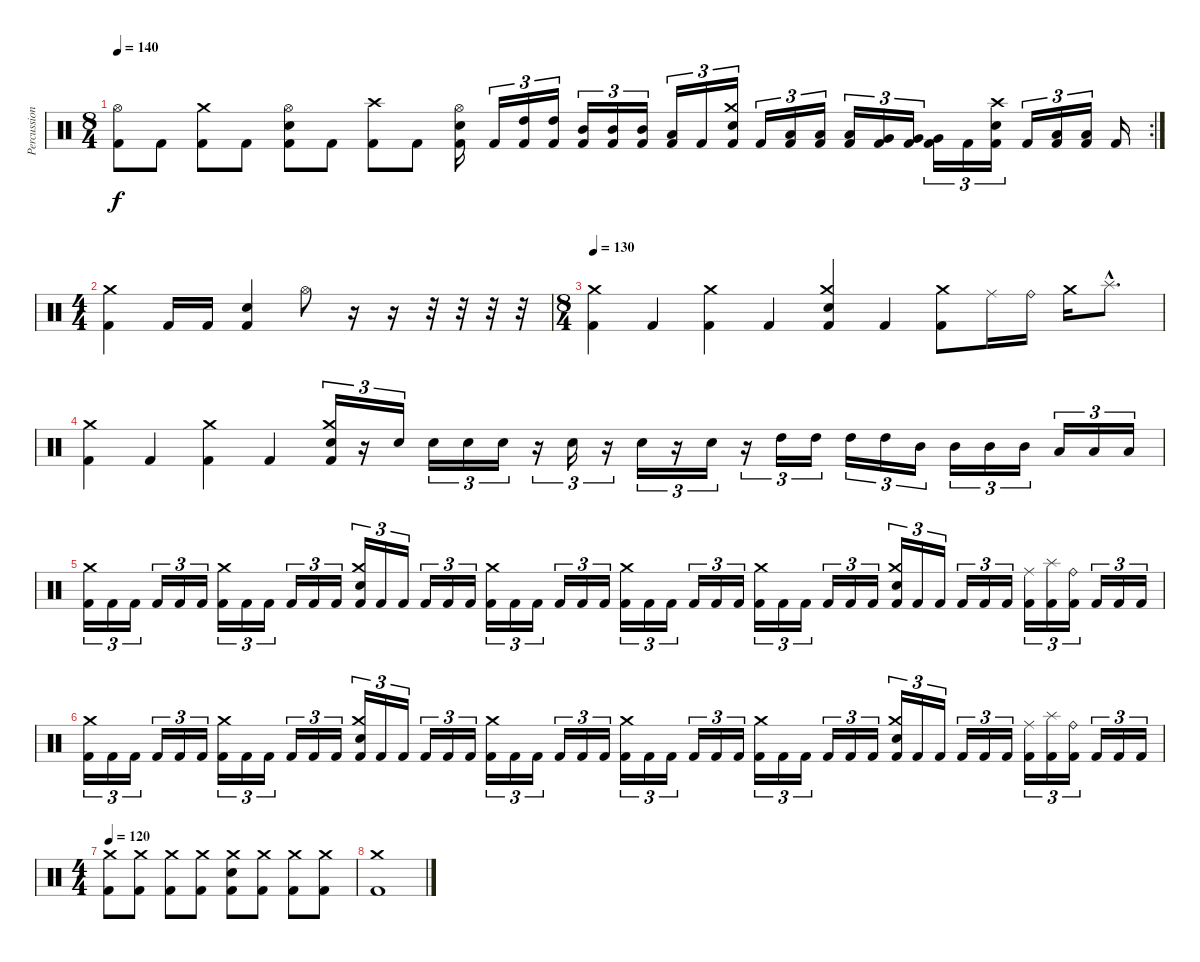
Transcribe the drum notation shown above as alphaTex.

\track ("Percussion" "Percussion") {instrument percussion}
\staff {score}
\articulation defaults
\rc 2
\ts (8 4)
\tempo 140
\clef neutral
\ks c
("Hi-Hat (open)" "Kick (hit) 2").8{dy f} "Kick (hit) 2".8 ("Crash medium (hit)" "Kick (hit) 2").8 "Kick (hit) 2".8 ("Hi-Hat (open)" "Electric Snare (hit)" "Kick (hit) 2").8 "Kick (hit) 2".8 ("Crash high (hit)" "Kick (hit) 2").8 "Kick (hit) 2".8 ("Hi-Hat (open)" "Electric Snare (hit)" "Kick (hit) 2").16 "Kick (hit) 2".16{tu (3 2)} ("High Tom (hit)" "Kick (hit) 2").16{tu (3 2)} ("High Tom (hit)" "Kick (hit) 2").16{tu (3 2)} ("Mid Tom (hit)" "Kick (hit) 2").16{tu (3 2)} ("Mid Tom (hit)" "Kick (hit) 2").16{tu (3 2)} ("Mid Tom (hit)" "Kick (hit) 2").16{tu (3 2)} ("Low Tom (hit)" "Kick (hit) 2").16{tu (3 2)} "Kick (hit) 2".16{tu (3 2)} ("Crash medium (hit)" "Electric Snare (hit)" "Kick (hit) 2").16{tu (3 2)} "Kick (hit) 2".16{tu (3 2)} ("Low Tom (hit)" "Kick (hit) 2").16{tu (3 2)} ("Low Tom (hit)" "Kick (hit) 2").16{tu (3 2)} ("Low Tom (hit)" "Kick (hit) 2").16{tu (3 2)} ("Very Low Tom (hit)" "Kick (hit) 2").16{tu (3 2)} ("Very Low Tom (hit)" "Kick (hit) 2").16{tu (3 2)} ("Very Low Tom (hit)" "Kick (hit) 2").16{tu (3 2)} "Kick (hit) 2".16{tu (3 2)} ("Crash high (hit)" "Electric Snare (hit)" "Kick (hit) 2").16{tu (3 2)} "Kick (hit) 2".16{tu (3 2)} ("Low Floor Tom (hit)" "Kick (hit) 2").16{tu (3 2)} ("Low Floor Tom (hit)" "Kick (hit) 2").16{tu (3 2)} "Kick (hit) 2".16 |
\ts (4 4)
("Crash medium (hit)" "Kick (hit) 2").4 "Kick (hit) 2".16 "Kick (hit) 2".16 ("Electric Snare (hit)" "Kick (hit) 2").4 "Hi-Hat (open)".8 r.16 r.16 r.32 r.32 r.32 r.32 |
\ts (8 4)
\tempo 130
("Crash medium (hit)" "Kick (hit) 2").4 "Kick (hit) 2".4 ("Crash medium (hit)" "Kick (hit) 2").4 "Kick (hit) 2".4 ("Crash medium (hit)" "Electric Snare (hit)" "Kick (hit) 2").4 "Kick (hit) 2".4 ("Crash medium (hit)" "Kick (hit) 2").8 "Ride (middle)".16 "Ride (bell)".16 "Crash medium (hit)".16 "Splash (hit)"{hac}.8{d} |
("Crash medium (hit)" "Kick (hit) 2").4 "Kick (hit) 2".4 ("Crash medium (hit)" "Kick (hit) 2").4 "Kick (hit) 2".4 ("Crash medium (hit)" "Electric Snare (hit)" "Kick (hit) 2").16{tu (3 2)} r.16{tu (3 2)} "Electric Snare (hit)".16{tu (3 2)} "Electric Snare (hit)".16{tu (3 2)} "Electric Snare (hit)".16{tu (3 2)} "Electric Snare (hit)".16{tu (3 2)} r.16{tu (3 2)} "Electric Snare (hit)".16{tu (3 2)} r.16{tu (3 2)} "Electric Snare (hit)".16{tu (3 2)} r.16{tu (3 2)} "Electric Snare (hit)".16{tu (3 2)} r.16{tu (3 2)} "High Tom (hit)".16{tu (3 2)} "High Tom (hit)".16{tu (3 2)} "High Tom (hit)".16{tu (3 2)} "High Tom (hit)".16{tu (3 2)} "Mid Tom (hit)".16{tu (3 2)} "Mid Tom (hit)".16{tu (3 2)} "Mid Tom (hit)".16{tu (3 2)} "Mid Tom (hit)".16{tu (3 2)} "Low Tom (hit)".16{tu (3 2)} "Low Tom (hit)".16{tu (3 2)} "Low Tom (hit)".16{tu (3 2)} |
("Crash medium (hit)" "Kick (hit) 2").16{tu (3 2)} "Kick (hit) 2".16{tu (3 2)} "Kick (hit) 2".16{tu (3 2)} "Kick (hit) 2".16{tu (3 2)} "Kick (hit) 2".16{tu (3 2)} "Kick (hit) 2".16{tu (3 2)} ("Crash medium (hit)" "Kick (hit) 2").16{tu (3 2)} "Kick (hit) 2".16{tu (3 2)} "Kick (hit) 2".16{tu (3 2)} "Kick (hit) 2".16{tu (3 2)} "Kick (hit) 2".16{tu (3 2)} "Kick (hit) 2".16{tu (3 2)} ("Crash medium (hit)" "Electric Snare (hit)" "Kick (hit) 2").16{tu (3 2)} "Kick (hit) 2".16{tu (3 2)} "Kick (hit) 2".16{tu (3 2)} "Kick (hit) 2".16{tu (3 2)} "Kick (hit) 2".16{tu (3 2)} "Kick (hit) 2".16{tu (3 2)} ("Crash medium (hit)" "Kick (hit) 2").16{tu (3 2)} "Kick (hit) 2".16{tu (3 2)} "Kick (hit) 2".16{tu (3 2)} "Kick (hit) 2".16{tu (3 2)} "Kick (hit) 2".16{tu (3 2)} "Kick (hit) 2".16{tu (3 2)} ("Crash medium (hit)" "Kick (hit) 2").16{tu (3 2)} "Kick (hit) 2".16{tu (3 2)} "Kick (hit) 2".16{tu (3 2)} "Kick (hit) 2".16{tu (3 2)} "Kick (hit) 2".16{tu (3 2)} "Kick (hit) 2".16{tu (3 2)} ("Crash medium (hit)" "Kick (hit) 2").16{tu (3 2)} "Kick (hit) 2".16{tu (3 2)} "Kick (hit) 2".16{tu (3 2)} "Kick (hit) 2".16{tu (3 2)} "Kick (hit) 2".16{tu (3 2)} "Kick (hit) 2".16{tu (3 2)} ("Crash medium (hit)" "Electric Snare (hit)" "Kick (hit) 2").16{tu (3 2)} "Kick (hit) 2".16{tu (3 2)} "Kick (hit) 2".16{tu (3 2)} "Kick (hit) 2".16{tu (3 2)} "Kick (hit) 2".16{tu (3 2)} "Kick (hit) 2".16{tu (3 2)} ("Ride (middle)" "Kick (hit) 2").16{tu (3 2)} ("Splash (hit)" "Kick (hit) 2").16{tu (3 2)} ("Ride (bell)" "Kick (hit) 2").16{tu (3 2)} "Kick (hit) 2".16{tu (3 2)} "Kick (hit) 2".16{tu (3 2)} "Kick (hit) 2".16{tu (3 2)} |
("Crash medium (hit)" "Kick (hit) 2").16{tu (3 2)} "Kick (hit) 2".16{tu (3 2)} "Kick (hit) 2".16{tu (3 2)} "Kick (hit) 2".16{tu (3 2)} "Kick (hit) 2".16{tu (3 2)} "Kick (hit) 2".16{tu (3 2)} ("Crash medium (hit)" "Kick (hit) 2").16{tu (3 2)} "Kick (hit) 2".16{tu (3 2)} "Kick (hit) 2".16{tu (3 2)} "Kick (hit) 2".16{tu (3 2)} "Kick (hit) 2".16{tu (3 2)} "Kick (hit) 2".16{tu (3 2)} ("Crash medium (hit)" "Electric Snare (hit)" "Kick (hit) 2").16{tu (3 2)} "Kick (hit) 2".16{tu (3 2)} "Kick (hit) 2".16{tu (3 2)} "Kick (hit) 2".16{tu (3 2)} "Kick (hit) 2".16{tu (3 2)} "Kick (hit) 2".16{tu (3 2)} ("Crash medium (hit)" "Kick (hit) 2").16{tu (3 2)} "Kick (hit) 2".16{tu (3 2)} "Kick (hit) 2".16{tu (3 2)} "Kick (hit) 2".16{tu (3 2)} "Kick (hit) 2".16{tu (3 2)} "Kick (hit) 2".16{tu (3 2)} ("Crash medium (hit)" "Kick (hit) 2").16{tu (3 2)} "Kick (hit) 2".16{tu (3 2)} "Kick (hit) 2".16{tu (3 2)} "Kick (hit) 2".16{tu (3 2)} "Kick (hit) 2".16{tu (3 2)} "Kick (hit) 2".16{tu (3 2)} ("Crash medium (hit)" "Kick (hit) 2").16{tu (3 2)} "Kick (hit) 2".16{tu (3 2)} "Kick (hit) 2".16{tu (3 2)} "Kick (hit) 2".16{tu (3 2)} "Kick (hit) 2".16{tu (3 2)} "Kick (hit) 2".16{tu (3 2)} ("Crash medium (hit)" "Electric Snare (hit)" "Kick (hit) 2").16{tu (3 2)} "Kick (hit) 2".16{tu (3 2)} "Kick (hit) 2".16{tu (3 2)} "Kick (hit) 2".16{tu (3 2)} "Kick (hit) 2".16{tu (3 2)} "Kick (hit) 2".16{tu (3 2)} ("Ride (middle)" "Kick (hit) 2").16{tu (3 2)} ("Splash (hit)" "Kick (hit) 2").16{tu (3 2)} ("Ride (bell)" "Kick (hit) 2").16{tu (3 2)} "Kick (hit) 2".16{tu (3 2)} "Kick (hit) 2".16{tu (3 2)} "Kick (hit) 2".16{tu (3 2)} |
\ts (4 4)
\tempo 120
("Crash medium (hit)" "Kick (hit) 2").8 ("Crash medium (hit)" "Kick (hit) 2").8 ("Crash medium (hit)" "Kick (hit) 2").8 ("Crash medium (hit)" "Kick (hit) 2").8 ("Crash medium (hit)" "Electric Snare (hit)" "Kick (hit) 2").8 ("Crash medium (hit)" "Kick (hit) 2").8 ("Crash medium (hit)" "Kick (hit) 2").8 ("Crash medium (hit)" "Kick (hit) 2").8 |
("Crash medium (hit)" "Kick (hit) 2").1
